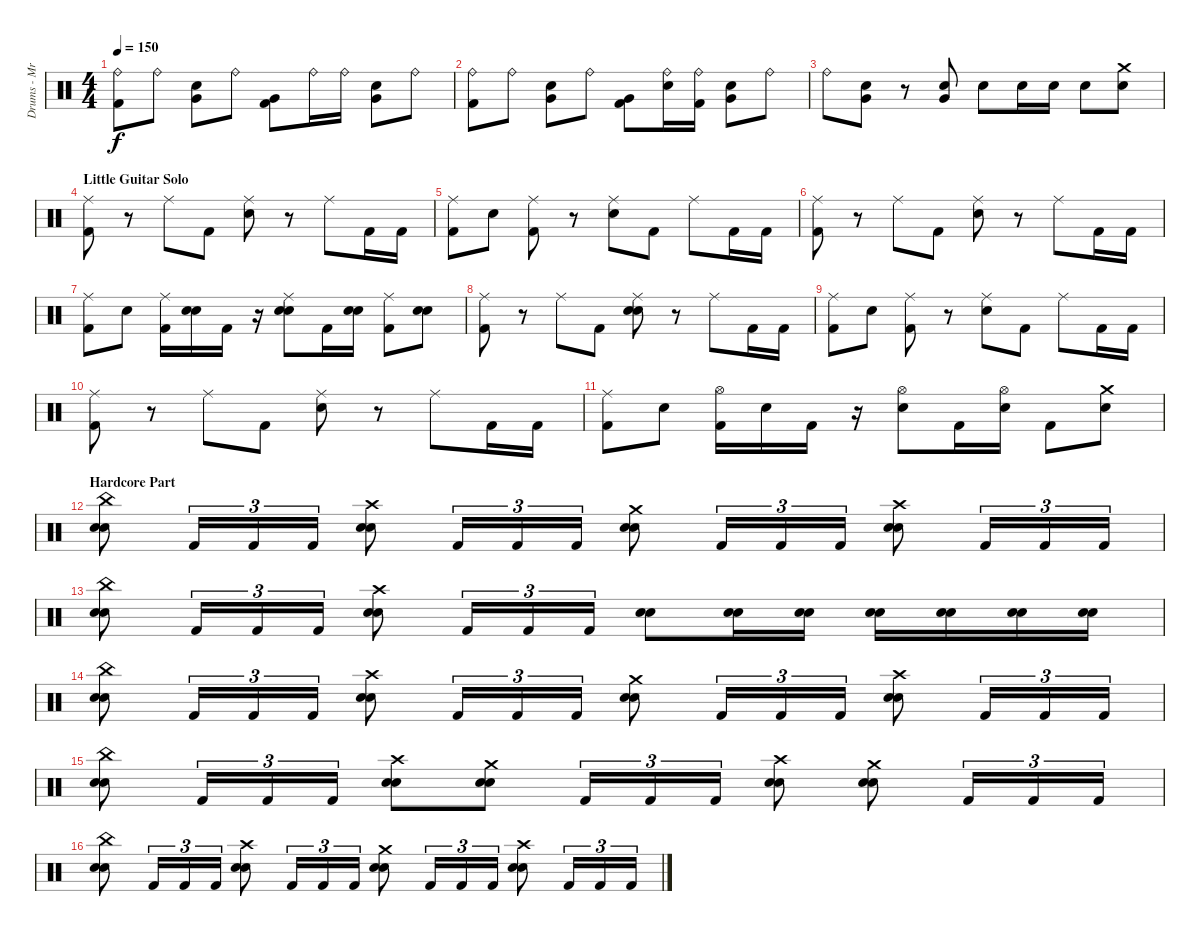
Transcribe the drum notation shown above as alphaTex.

\track ("Drums - Mr. Beller, Thomas" "Drums - Mr") {instrument percussion}
\staff {score}
\articulation defaults
\ts (4 4)
\tempo 150
\clef neutral
\ks c
("Ride (bell)" "Kick (hit) 2").8{dy f} "Ride (bell)".8 ("Very Low Tom (hit)" "Electric Snare (hit)").8 "Ride (bell)".8 ("Very Low Tom (hit)" "Kick (hit) 2").8 "Ride (bell)".16 "Ride (bell)".16 ("Very Low Tom (hit)" "Electric Snare (hit)").8 "Ride (bell)".8 |
("Ride (bell)" "Kick (hit) 2").8 "Ride (bell)".8 ("Very Low Tom (hit)" "Electric Snare (hit)").8 "Ride (bell)".8 ("Very Low Tom (hit)" "Kick (hit) 2").8 ("Ride (bell)" "Electric Snare (hit)").16 ("Ride (bell)" "Kick (hit) 2").16 ("Very Low Tom (hit)" "Electric Snare (hit)").8 "Ride (bell)".8 |
"Ride (bell)".8 ("Very Low Tom (hit)" "Electric Snare (hit)").8 r.8 ("Very Low Tom (hit)" "Electric Snare (hit)").8 "Electric Snare (hit)".8 "Electric Snare (hit)".16 "Electric Snare (hit)".16 "Electric Snare (hit)".8 ("Crash medium (hit)" "Electric Snare (hit)").8 |
\section ("" "Little Guitar Solo")
("Ride (middle)" "Kick (hit) 2").8 r.8 "Ride (middle)".8 "Kick (hit) 2".8 ("Ride (middle)" "Electric Snare (hit)").8 r.8 "Ride (middle)".8 "Kick (hit) 2".16 "Kick (hit) 2".16 |
("Ride (middle)" "Kick (hit) 2").8 "Electric Snare (hit)".8 ("Ride (middle)" "Kick (hit) 2").8 r.8 ("Ride (middle)" "Electric Snare (hit)").8 "Kick (hit) 2".8 "Ride (middle)".8 "Kick (hit) 2".16 "Kick (hit) 2".16 |
("Ride (middle)" "Kick (hit) 2").8 r.8 "Ride (middle)".8 "Kick (hit) 2".8 ("Ride (middle)" "Electric Snare (hit)").8 r.8 "Ride (middle)".8 "Kick (hit) 2".16 "Kick (hit) 2".16 |
("Ride (middle)" "Kick (hit) 2").8 "Electric Snare (hit)".8 ("Ride (middle)" "Kick (hit) 2").16 ("Electric Snare (hit)" "Electric Snare (hit)").16 "Kick (hit) 2".16 r.16 ("Ride (middle)" "Electric Snare (hit)" "Electric Snare (hit)").8 "Kick (hit) 2".16 ("Electric Snare (hit)" "Electric Snare (hit)").16 ("Ride (middle)" "Kick (hit) 2").8 ("Electric Snare (hit)" "Electric Snare (hit)").8 |
("Ride (middle)" "Kick (hit) 2").8 r.8 "Ride (middle)".8 "Kick (hit) 2".8 ("Ride (middle)" "Electric Snare (hit)" "Electric Snare (hit)").8 r.8 "Ride (middle)".8 "Kick (hit) 2".16 "Kick (hit) 2".16 |
("Ride (middle)" "Kick (hit) 2").8 "Electric Snare (hit)".8 ("Ride (middle)" "Kick (hit) 2").8 r.8 ("Ride (middle)" "Electric Snare (hit)").8 "Kick (hit) 2".8 "Ride (middle)".8 "Kick (hit) 2".16 "Kick (hit) 2".16 |
("Ride (middle)" "Kick (hit) 2").8 r.8 "Ride (middle)".8 "Kick (hit) 2".8 ("Ride (middle)" "Electric Snare (hit)").8 r.8 "Ride (middle)".8 "Kick (hit) 2".16 "Kick (hit) 2".16 |
("Ride (middle)" "Kick (hit) 2").8 "Electric Snare (hit)".8 ("Hi-Hat (open)" "Kick (hit) 2").16 "Electric Snare (hit)".16 "Kick (hit) 2".16 r.16 ("Hi-Hat (open)" "Electric Snare (hit)").8 "Kick (hit) 2".16 ("Hi-Hat (open)" "Electric Snare (hit)").16 "Kick (hit) 2".8 ("Crash medium (hit)" "Electric Snare (hit)").8 |
\section ("" "Hardcore Part")
("China (hit)" "Electric Snare (hit)" "Electric Snare (hit)").8 "Kick (hit) 2".16{tu (3 2)} "Kick (hit) 2".16{tu (3 2)} "Kick (hit) 2".16{tu (3 2)} ("Crash high (hit)" "Electric Snare (hit)" "Electric Snare (hit)").8 "Kick (hit) 2".16{tu (3 2)} "Kick (hit) 2".16{tu (3 2)} "Kick (hit) 2".16{tu (3 2)} ("Crash medium (hit)" "Electric Snare (hit)" "Electric Snare (hit)").8 "Kick (hit) 2".16{tu (3 2)} "Kick (hit) 2".16{tu (3 2)} "Kick (hit) 2".16{tu (3 2)} ("Crash high (hit)" "Electric Snare (hit)" "Electric Snare (hit)").8 "Kick (hit) 2".16{tu (3 2)} "Kick (hit) 2".16{tu (3 2)} "Kick (hit) 2".16{tu (3 2)} |
("China (hit)" "Electric Snare (hit)" "Electric Snare (hit)").8 "Kick (hit) 2".16{tu (3 2)} "Kick (hit) 2".16{tu (3 2)} "Kick (hit) 2".16{tu (3 2)} ("Crash high (hit)" "Electric Snare (hit)" "Electric Snare (hit)").8 "Kick (hit) 2".16{tu (3 2)} "Kick (hit) 2".16{tu (3 2)} "Kick (hit) 2".16{tu (3 2)} ("Electric Snare (hit)" "Electric Snare (hit)").8 ("Electric Snare (hit)" "Electric Snare (hit)").16 ("Electric Snare (hit)" "Electric Snare (hit)").16 ("Electric Snare (hit)" "Electric Snare (hit)").16 ("Electric Snare (hit)" "Electric Snare (hit)").16 ("Electric Snare (hit)" "Electric Snare (hit)").16 ("Electric Snare (hit)" "Electric Snare (hit)").16 |
("China (hit)" "Electric Snare (hit)" "Electric Snare (hit)").8 "Kick (hit) 2".16{tu (3 2)} "Kick (hit) 2".16{tu (3 2)} "Kick (hit) 2".16{tu (3 2)} ("Crash high (hit)" "Electric Snare (hit)" "Electric Snare (hit)").8 "Kick (hit) 2".16{tu (3 2)} "Kick (hit) 2".16{tu (3 2)} "Kick (hit) 2".16{tu (3 2)} ("Crash medium (hit)" "Electric Snare (hit)" "Electric Snare (hit)").8 "Kick (hit) 2".16{tu (3 2)} "Kick (hit) 2".16{tu (3 2)} "Kick (hit) 2".16{tu (3 2)} ("Crash high (hit)" "Electric Snare (hit)" "Electric Snare (hit)").8 "Kick (hit) 2".16{tu (3 2)} "Kick (hit) 2".16{tu (3 2)} "Kick (hit) 2".16{tu (3 2)} |
("China (hit)" "Electric Snare (hit)" "Electric Snare (hit)").8 "Kick (hit) 2".16{tu (3 2)} "Kick (hit) 2".16{tu (3 2)} "Kick (hit) 2".16{tu (3 2)} ("Crash high (hit)" "Electric Snare (hit)" "Electric Snare (hit)").8 ("Crash medium (hit)" "Electric Snare (hit)" "Electric Snare (hit)").8 "Kick (hit) 2".16{tu (3 2)} "Kick (hit) 2".16{tu (3 2)} "Kick (hit) 2".16{tu (3 2)} ("Crash high (hit)" "Electric Snare (hit)" "Electric Snare (hit)").8 ("Crash medium (hit)" "Electric Snare (hit)" "Electric Snare (hit)").8 "Kick (hit) 2".16{tu (3 2)} "Kick (hit) 2".16{tu (3 2)} "Kick (hit) 2".16{tu (3 2)} |
("China (hit)" "Electric Snare (hit)" "Electric Snare (hit)").8 "Kick (hit) 2".16{tu (3 2)} "Kick (hit) 2".16{tu (3 2)} "Kick (hit) 2".16{tu (3 2)} ("Crash high (hit)" "Electric Snare (hit)" "Electric Snare (hit)").8 "Kick (hit) 2".16{tu (3 2)} "Kick (hit) 2".16{tu (3 2)} "Kick (hit) 2".16{tu (3 2)} ("Crash medium (hit)" "Electric Snare (hit)" "Electric Snare (hit)").8 "Kick (hit) 2".16{tu (3 2)} "Kick (hit) 2".16{tu (3 2)} "Kick (hit) 2".16{tu (3 2)} ("Crash high (hit)" "Electric Snare (hit)" "Electric Snare (hit)").8 "Kick (hit) 2".16{tu (3 2)} "Kick (hit) 2".16{tu (3 2)} "Kick (hit) 2".16{tu (3 2)}
